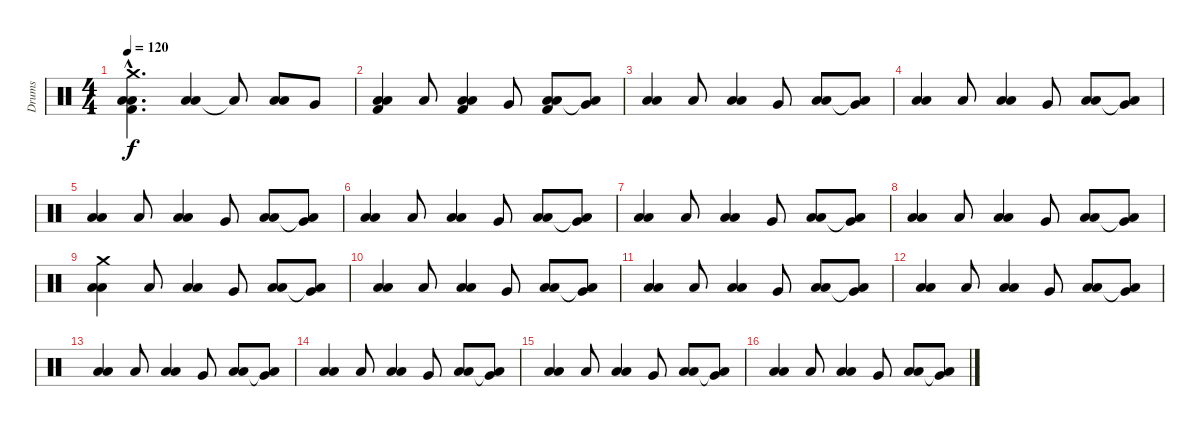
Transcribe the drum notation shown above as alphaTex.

\track ("Drums" "Drums") {instrument percussion}
\staff {score}
\articulation defaults
\ts (4 4)
\tempo 120
\clef neutral
\ks c
("Crash medium (hit)"{hac} "Low Tom (hit)"{hac} "Low Tom (hit)"{hac} "Kick (hit) 2"{hac}).4{d bd 60 dy f} ("Low Tom (hit)" "Low Tom (hit)").4{bd 60} "Low Tom (hit)"{t}.8 ("Low Tom (hit)" "Low Tom (hit)").8{bd 60} "Very Low Tom (hit)".8 |
("Low Tom (hit)" "Low Tom (hit)" "Kick (hit) 2").4{bd 60} "Low Tom (hit)".8{bd 60} ("Low Tom (hit)" "Low Tom (hit)" "Kick (hit) 2").4{bd 60} "Very Low Tom (hit)".8 ("Low Tom (hit)" "Low Tom (hit)" "Kick (hit) 2").8{bd 60} ("Low Tom (hit)"{t} "Very Low Tom (hit)").8 |
("Low Tom (hit)" "Low Tom (hit)").4{bd 60} "Low Tom (hit)".8{bd 60} ("Low Tom (hit)" "Low Tom (hit)").4{bd 60} "Very Low Tom (hit)".8 ("Low Tom (hit)" "Low Tom (hit)").8{bd 60} ("Low Tom (hit)"{t} "Very Low Tom (hit)").8 |
("Low Tom (hit)" "Low Tom (hit)").4{bd 60} "Low Tom (hit)".8{bd 60} ("Low Tom (hit)" "Low Tom (hit)").4{bd 60} "Very Low Tom (hit)".8 ("Low Tom (hit)" "Low Tom (hit)").8{bd 60} ("Low Tom (hit)"{t} "Very Low Tom (hit)").8 |
("Low Tom (hit)" "Low Tom (hit)").4{bd 60} "Low Tom (hit)".8{bd 60} ("Low Tom (hit)" "Low Tom (hit)").4{bd 60} "Very Low Tom (hit)".8 ("Low Tom (hit)" "Low Tom (hit)").8{bd 60} ("Low Tom (hit)"{t} "Very Low Tom (hit)").8 |
("Low Tom (hit)" "Low Tom (hit)").4{bd 60} "Low Tom (hit)".8{bd 60} ("Low Tom (hit)" "Low Tom (hit)").4{bd 60} "Very Low Tom (hit)".8 ("Low Tom (hit)" "Low Tom (hit)").8{bd 60} ("Low Tom (hit)"{t} "Very Low Tom (hit)").8 |
("Low Tom (hit)" "Low Tom (hit)").4{bd 60} "Low Tom (hit)".8{bd 60} ("Low Tom (hit)" "Low Tom (hit)").4{bd 60} "Very Low Tom (hit)".8 ("Low Tom (hit)" "Low Tom (hit)").8{bd 60} ("Low Tom (hit)"{t} "Very Low Tom (hit)").8 |
("Low Tom (hit)" "Low Tom (hit)").4{bd 60} "Low Tom (hit)".8{bd 60} ("Low Tom (hit)" "Low Tom (hit)").4{bd 60} "Very Low Tom (hit)".8 ("Low Tom (hit)" "Low Tom (hit)").8{bd 60} ("Low Tom (hit)"{t} "Very Low Tom (hit)").8 |
("Crash medium (hit)" "Low Tom (hit)" "Low Tom (hit)").4{bd 60} "Low Tom (hit)".8{bd 60} ("Low Tom (hit)" "Low Tom (hit)").4{bd 60} "Very Low Tom (hit)".8 ("Low Tom (hit)" "Low Tom (hit)").8{bd 60} ("Low Tom (hit)"{t} "Very Low Tom (hit)").8 |
("Low Tom (hit)" "Low Tom (hit)").4{bd 60} "Low Tom (hit)".8{bd 60} ("Low Tom (hit)" "Low Tom (hit)").4{bd 60} "Very Low Tom (hit)".8 ("Low Tom (hit)" "Low Tom (hit)").8{bd 60} ("Low Tom (hit)"{t} "Very Low Tom (hit)").8 |
("Low Tom (hit)" "Low Tom (hit)").4{bd 60} "Low Tom (hit)".8{bd 60} ("Low Tom (hit)" "Low Tom (hit)").4{bd 60} "Very Low Tom (hit)".8 ("Low Tom (hit)" "Low Tom (hit)").8{bd 60} ("Low Tom (hit)"{t} "Very Low Tom (hit)").8 |
("Low Tom (hit)" "Low Tom (hit)").4{bd 60} "Low Tom (hit)".8{bd 60} ("Low Tom (hit)" "Low Tom (hit)").4{bd 60} "Very Low Tom (hit)".8 ("Low Tom (hit)" "Low Tom (hit)").8{bd 60} ("Low Tom (hit)"{t} "Very Low Tom (hit)").8 |
("Low Tom (hit)" "Low Tom (hit)").4{bd 60} "Low Tom (hit)".8{bd 60} ("Low Tom (hit)" "Low Tom (hit)").4{bd 60} "Very Low Tom (hit)".8 ("Low Tom (hit)" "Low Tom (hit)").8{bd 60} ("Low Tom (hit)"{t} "Very Low Tom (hit)").8 |
("Low Tom (hit)" "Low Tom (hit)").4{bd 60} "Low Tom (hit)".8{bd 60} ("Low Tom (hit)" "Low Tom (hit)").4{bd 60} "Very Low Tom (hit)".8 ("Low Tom (hit)" "Low Tom (hit)").8{bd 60} ("Low Tom (hit)"{t} "Very Low Tom (hit)").8 |
("Low Tom (hit)" "Low Tom (hit)").4{bd 60} "Low Tom (hit)".8{bd 60} ("Low Tom (hit)" "Low Tom (hit)").4{bd 60} "Very Low Tom (hit)".8 ("Low Tom (hit)" "Low Tom (hit)").8{bd 60} ("Low Tom (hit)"{t} "Very Low Tom (hit)").8 |
("Low Tom (hit)" "Low Tom (hit)").4{bd 60} "Low Tom (hit)".8{bd 60} ("Low Tom (hit)" "Low Tom (hit)").4{bd 60} "Very Low Tom (hit)".8 ("Low Tom (hit)" "Low Tom (hit)").8{bd 60} ("Low Tom (hit)"{t} "Very Low Tom (hit)").8
